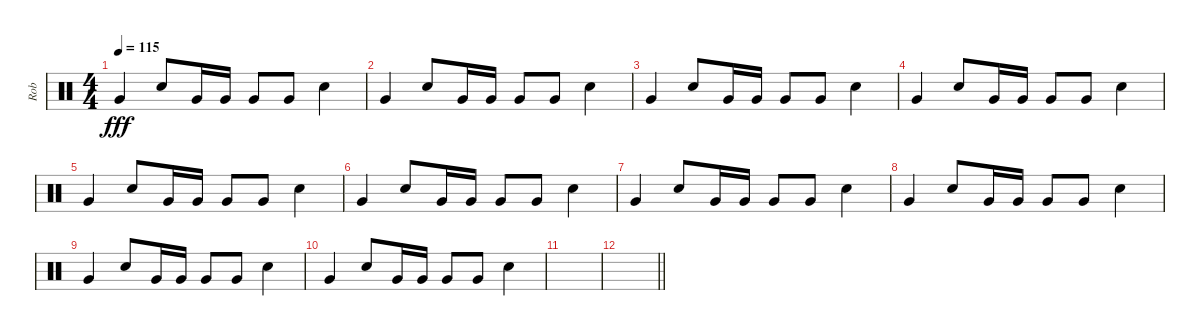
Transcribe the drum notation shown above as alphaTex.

\track ("Rob" "Rob") {instrument percussion}
\staff {score}
\articulation defaults
\ts (4 4)
\tempo 115
\clef neutral
\ks c "Very Low Tom (hit)".4{dy fff} "Snare (hit) 2".8 "Very Low Tom (hit)".16 "Very Low Tom (hit)".16 "Very Low Tom (hit)".8 "Very Low Tom (hit)".8 "Snare (hit) 2".4
|
"Very Low Tom (hit)".4 "Snare (hit) 2".8 "Very Low Tom (hit)".16 "Very Low Tom (hit)".16 "Very Low Tom (hit)".8 "Very Low Tom (hit)".8 "Snare (hit) 2".4 |
"Very Low Tom (hit)".4 "Snare (hit) 2".8 "Very Low Tom (hit)".16 "Very Low Tom (hit)".16 "Very Low Tom (hit)".8 "Very Low Tom (hit)".8 "Snare (hit) 2".4 |
"Very Low Tom (hit)".4 "Snare (hit) 2".8 "Very Low Tom (hit)".16 "Very Low Tom (hit)".16 "Very Low Tom (hit)".8 "Very Low Tom (hit)".8 "Snare (hit) 2".4 |
"Very Low Tom (hit)".4 "Snare (hit) 2".8 "Very Low Tom (hit)".16 "Very Low Tom (hit)".16 "Very Low Tom (hit)".8 "Very Low Tom (hit)".8 "Snare (hit) 2".4 |
"Very Low Tom (hit)".4 "Snare (hit) 2".8 "Very Low Tom (hit)".16 "Very Low Tom (hit)".16 "Very Low Tom (hit)".8 "Very Low Tom (hit)".8 "Snare (hit) 2".4 |
"Very Low Tom (hit)".4 "Snare (hit) 2".8 "Very Low Tom (hit)".16 "Very Low Tom (hit)".16 "Very Low Tom (hit)".8 "Very Low Tom (hit)".8 "Snare (hit) 2".4 |
"Very Low Tom (hit)".4 "Snare (hit) 2".8 "Very Low Tom (hit)".16 "Very Low Tom (hit)".16 "Very Low Tom (hit)".8 "Very Low Tom (hit)".8 "Snare (hit) 2".4 |
"Very Low Tom (hit)".4 "Snare (hit) 2".8 "Very Low Tom (hit)".16 "Very Low Tom (hit)".16 "Very Low Tom (hit)".8 "Very Low Tom (hit)".8 "Snare (hit) 2".4 |
"Very Low Tom (hit)".4 "Snare (hit) 2".8 "Very Low Tom (hit)".16 "Very Low Tom (hit)".16 "Very Low Tom (hit)".8 "Very Low Tom (hit)".8 "Snare (hit) 2".4 |
|
\barLineRight lightlight
